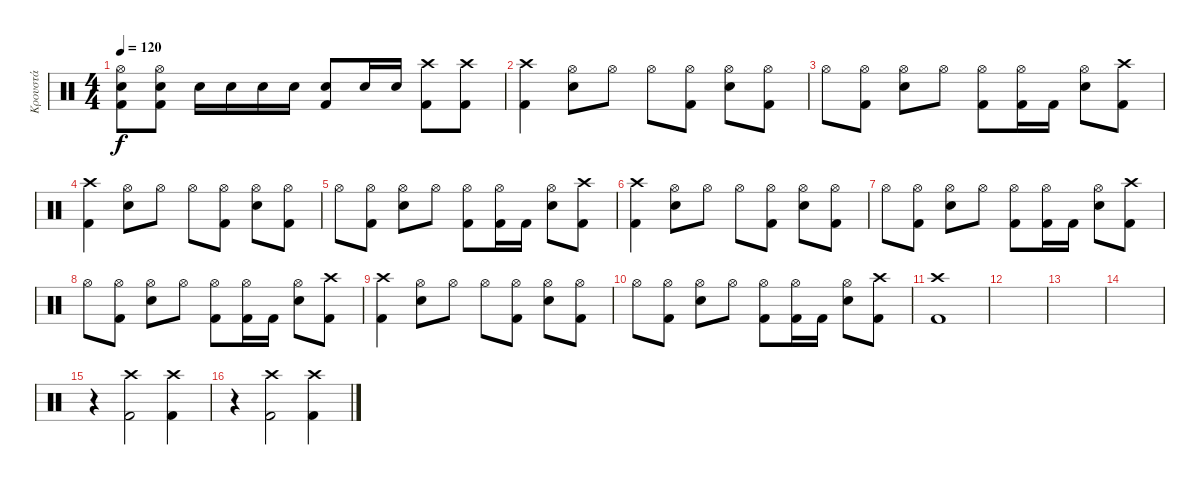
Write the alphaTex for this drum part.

\track ("Κρουστά" "Κρουστά") {instrument percussion}
\staff {score}
\articulation defaults
\ts (4 4)
\tempo 120
\clef neutral
\ks c
("Hi-Hat (open)" "Electric Snare (hit)" "Kick (hit) 2").8{dy f} ("Hi-Hat (open)" "Electric Snare (hit)" "Kick (hit) 2").8 "Electric Snare (hit)".16 "Electric Snare (hit)".16 "Electric Snare (hit)".16 "Electric Snare (hit)".16 ("Electric Snare (hit)" "Kick (hit) 2").8 "Electric Snare (hit)".16 "Electric Snare (hit)".16 ("Crash high (hit)" "Kick (hit) 2").8 ("Crash high (hit)" "Kick (hit) 2").8 |
("Crash high (hit)" "Kick (hit) 2").4 ("Hi-Hat (open)" "Electric Snare (hit)").8 "Hi-Hat (open)".8 "Hi-Hat (open)".8 ("Hi-Hat (open)" "Kick (hit) 2").8 ("Hi-Hat (open)" "Electric Snare (hit)").8 ("Hi-Hat (open)" "Kick (hit) 2").8 |
"Hi-Hat (open)".8 ("Hi-Hat (open)" "Kick (hit) 2").8 ("Hi-Hat (open)" "Electric Snare (hit)").8 "Hi-Hat (open)".8 ("Hi-Hat (open)" "Kick (hit) 2").8 ("Hi-Hat (open)" "Kick (hit) 2").16 "Kick (hit) 2".16 ("Hi-Hat (open)" "Electric Snare (hit)").8 ("Crash high (hit)" "Kick (hit) 2").8 |
("Crash high (hit)" "Kick (hit) 2").4 ("Hi-Hat (open)" "Electric Snare (hit)").8 "Hi-Hat (open)".8 "Hi-Hat (open)".8 ("Hi-Hat (open)" "Kick (hit) 2").8 ("Hi-Hat (open)" "Electric Snare (hit)").8 ("Hi-Hat (open)" "Kick (hit) 2").8 |
"Hi-Hat (open)".8 ("Hi-Hat (open)" "Kick (hit) 2").8 ("Hi-Hat (open)" "Electric Snare (hit)").8 "Hi-Hat (open)".8 ("Hi-Hat (open)" "Kick (hit) 2").8 ("Hi-Hat (open)" "Kick (hit) 2").16 "Kick (hit) 2".16 ("Hi-Hat (open)" "Electric Snare (hit)").8 ("Crash high (hit)" "Kick (hit) 2").8 |
("Crash high (hit)" "Kick (hit) 2").4 ("Hi-Hat (open)" "Electric Snare (hit)").8 "Hi-Hat (open)".8 "Hi-Hat (open)".8 ("Hi-Hat (open)" "Kick (hit) 2").8 ("Hi-Hat (open)" "Electric Snare (hit)").8 ("Hi-Hat (open)" "Kick (hit) 2").8 |
"Hi-Hat (open)".8 ("Hi-Hat (open)" "Kick (hit) 2").8 ("Hi-Hat (open)" "Electric Snare (hit)").8 "Hi-Hat (open)".8 ("Hi-Hat (open)" "Kick (hit) 2").8 ("Hi-Hat (open)" "Kick (hit) 2").16 "Kick (hit) 2".16 ("Hi-Hat (open)" "Electric Snare (hit)").8 ("Crash high (hit)" "Kick (hit) 2").8 |
"Hi-Hat (open)".8 ("Hi-Hat (open)" "Kick (hit) 2").8 ("Hi-Hat (open)" "Electric Snare (hit)").8 "Hi-Hat (open)".8 ("Hi-Hat (open)" "Kick (hit) 2").8 ("Hi-Hat (open)" "Kick (hit) 2").16 "Kick (hit) 2".16 ("Hi-Hat (open)" "Electric Snare (hit)").8 ("Crash high (hit)" "Kick (hit) 2").8 |
("Crash high (hit)" "Kick (hit) 2").4 ("Hi-Hat (open)" "Electric Snare (hit)").8 "Hi-Hat (open)".8 "Hi-Hat (open)".8 ("Hi-Hat (open)" "Kick (hit) 2").8 ("Hi-Hat (open)" "Electric Snare (hit)").8 ("Hi-Hat (open)" "Kick (hit) 2").8 |
"Hi-Hat (open)".8 ("Hi-Hat (open)" "Kick (hit) 2").8 ("Hi-Hat (open)" "Electric Snare (hit)").8 "Hi-Hat (open)".8 ("Hi-Hat (open)" "Kick (hit) 2").8 ("Hi-Hat (open)" "Kick (hit) 2").16 "Kick (hit) 2".16 ("Hi-Hat (open)" "Electric Snare (hit)").8 ("Crash high (hit)" "Kick (hit) 2").8 |
("Crash high (hit)" "Kick (hit) 2").1 |
|
|
|
r.4 ("Crash high (hit)" "Kick (hit) 2").2 ("Crash high (hit)" "Kick (hit) 2").4 |
r.4 ("Crash high (hit)" "Kick (hit) 2").2 ("Crash high (hit)" "Kick (hit) 2").4
